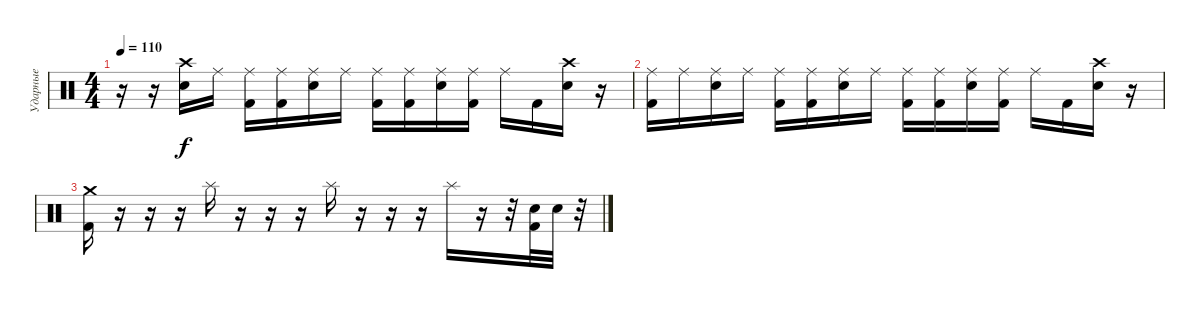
\track ("Ударные" "Ударные") {instrument percussion}
\staff {score}
\articulation defaults
\ts (4 4)
\tempo 110
\clef neutral
\ks c
r.16{dy f} r.16 ("Electric Snare (hit)" "Crash high (hit)").16 "Ride (middle)".16 ("Kick (hit) 2" "Ride (middle)").16 ("Kick (hit) 2" "Ride (middle)").16 ("Electric Snare (hit)" "Ride (middle)").16 "Ride (middle)".16 ("Kick (hit) 2" "Ride (middle)").16 ("Kick (hit) 2" "Ride (middle)").16 ("Electric Snare (hit)" "Ride (middle)").16 ("Kick (hit) 2" "Ride (middle)").16 "Ride (middle)".16 "Kick (hit) 2".16 ("Electric Snare (hit)" "Crash high (hit)").16 r.16 |
("Kick (hit) 2" "Ride (middle)").16 "Ride (middle)".16 ("Electric Snare (hit)" "Ride (middle)").16 "Ride (middle)".16 ("Kick (hit) 2" "Ride (middle)").16 ("Kick (hit) 2" "Ride (middle)").16 ("Electric Snare (hit)" "Ride (middle)").16 "Ride (middle)".16 ("Kick (hit) 2" "Ride (middle)").16 ("Kick (hit) 2" "Ride (middle)").16 ("Electric Snare (hit)" "Ride (middle)").16 ("Kick (hit) 2" "Ride (middle)").16 "Ride (middle)".16 "Kick (hit) 2".16 ("Electric Snare (hit)" "Crash high (hit)").16 r.16 |
("Kick (hit) 2" "Crash medium (hit)").16 r.16 r.16 r.16 "Splash (hit)".16 r.16 r.16 r.16 "Splash (hit)".16 r.16 r.16 r.16 "Splash (hit)".16 r.16 r.32 ("Kick (hit) 2" "Electric Snare (hit)").32 "Electric Snare (hit)".32 r.32
